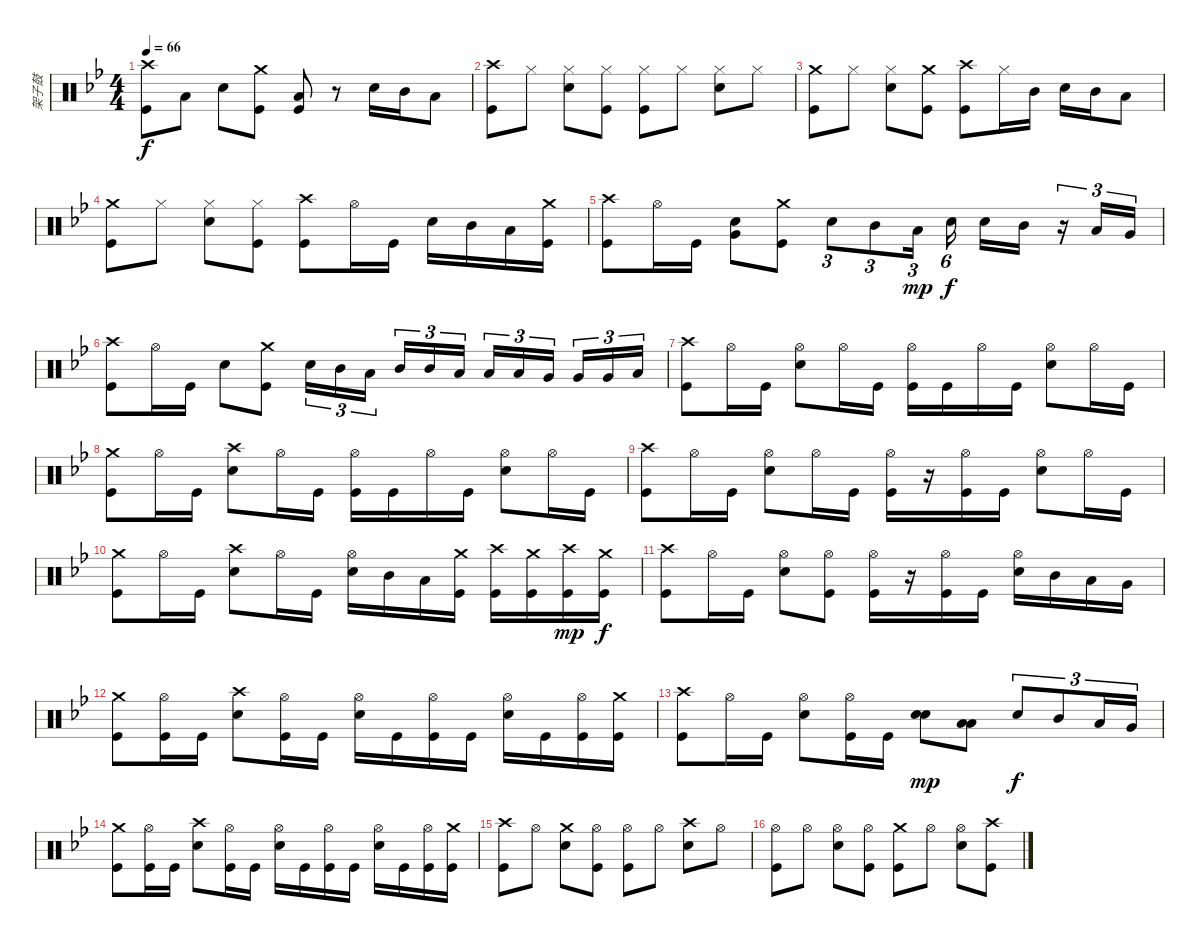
\track ("架子鼓" "架子鼓") {instrument percussion}
\staff {score}
\articulation defaults
\ts (4 4)
\tempo 66
\clef neutral
\ks bb
("Crash high (hit)" "Kick (hit)").8{dy f} "Low Tom (hit)".8 "Electric Snare (hit)".8 ("Crash medium (hit)" "Kick (hit)").8 ("Low Tom (hit)" "Kick (hit)").8 r.8 "Electric Snare (hit)".16 "Mid Tom (hit)".16 "Low Tom (hit)".8 |
("Crash high (hit)" "Kick (hit)").8 "Hi-Hat (closed)".8 ("Hi-Hat (closed)" "Electric Snare (hit)").8 ("Hi-Hat (closed)" "Kick (hit)").8 ("Hi-Hat (closed)" "Kick (hit)").8 "Hi-Hat (closed)".8 ("Hi-Hat (closed)" "Electric Snare (hit)").8 "Hi-Hat (closed)".8 |
("Crash medium (hit)" "Kick (hit)").8 "Hi-Hat (closed)".8 ("Hi-Hat (closed)" "Electric Snare (hit)").8 ("Crash medium (hit)" "Kick (hit)").8 ("Crash high (hit)" "Kick (hit)").8 "Hi-Hat (closed)".16 "Mid Tom (hit)".16 "Electric Snare (hit)".16 "Mid Tom (hit)".16 "Low Tom (hit)".8 |
("Crash medium (hit)" "Kick (hit)").8 "Hi-Hat (closed)".8 ("Hi-Hat (closed)" "Electric Snare (hit)").8 ("Hi-Hat (closed)" "Kick (hit)").8 ("Crash high (hit)" "Kick (hit)").8 "Hi-Hat (open)".16 "Kick (hit)".16 "Electric Snare (hit)".16 "Mid Tom (hit)".16 "Low Tom (hit)".16 ("Crash medium (hit)" "Kick (hit)").16 |
("Crash high (hit)" "Kick (hit)").8 "Hi-Hat (open)".16 "Kick (hit)".16 ("Electric Snare (hit)" "Very Low Tom (hit)").8 ("Crash medium (hit)" "Kick (hit)").8 "Electric Snare (hit)".8{tu (3 2)} "Mid Tom (hit)".8{tu (3 2)} "Low Tom (hit)".16{tu (3 2) dy mp} "Electric Snare (hit)".16{tu (6 4) dy f} "Electric Snare (hit)".16 "Mid Tom (hit)".16 r.16{tu (3 2)} "Low Tom (hit)".16{tu (3 2)} "Very Low Tom (hit)".16{tu (3 2)} |
("Crash high (hit)" "Kick (hit)").8 "Hi-Hat (open)".16 "Kick (hit)".16 "Electric Snare (hit)".8 ("Crash medium (hit)" "Kick (hit)").8 "Electric Snare (hit)".16{tu (3 2)} "Mid Tom (hit)".16{tu (3 2)} "Low Tom (hit)".16{tu (3 2) beam splitsecondary} "Mid Tom (hit)".16{tu (3 2)} "Mid Tom (hit)".16{tu (3 2)} "Low Tom (hit)".16{tu (3 2)} "Low Tom (hit)".16{tu (3 2)} "Low Tom (hit)".16{tu (3 2)} "Very Low Tom (hit)".16{tu (3 2) beam splitsecondary} "Very Low Tom (hit)".16{tu (3 2)} "Very Low Tom (hit)".16{tu (3 2)} "Low Floor Tom (hit)".16{tu (3 2)} |
("Crash high (hit)" "Kick (hit)").8 "Hi-Hat (open)".16 "Kick (hit)".16 ("Hi-Hat (open)" "Electric Snare (hit)").8 "Hi-Hat (open)".16 "Kick (hit)".16 ("Hi-Hat (open)" "Kick (hit)").16 "Kick (hit)".16 "Hi-Hat (open)".16 "Kick (hit)".16 ("Hi-Hat (open)" "Electric Snare (hit)").8 "Hi-Hat (open)".16 "Kick (hit)".16 |
("Crash medium (hit)" "Kick (hit)").8 "Hi-Hat (open)".16 "Kick (hit)".16 ("Crash high (hit)" "Electric Snare (hit)").8 "Hi-Hat (open)".16 "Kick (hit)".16 ("Hi-Hat (open)" "Kick (hit)").16 "Kick (hit)".16 "Hi-Hat (open)".16 "Kick (hit)".16 ("Hi-Hat (open)" "Electric Snare (hit)").8 "Hi-Hat (open)".16 "Kick (hit)".16 |
("Crash high (hit)" "Kick (hit)").8 "Hi-Hat (open)".16 "Kick (hit)".16 ("Hi-Hat (open)" "Electric Snare (hit)").8 "Hi-Hat (open)".16 "Kick (hit)".16 ("Hi-Hat (open)" "Kick (hit)").16 r.16 ("Hi-Hat (open)" "Kick (hit)").16 "Kick (hit)".16 ("Hi-Hat (open)" "Electric Snare (hit)").8 "Hi-Hat (open)".16 "Kick (hit)".16 |
("Crash medium (hit)" "Kick (hit)").8 "Hi-Hat (open)".16 "Kick (hit)".16 ("Crash high (hit)" "Electric Snare (hit)").8 "Hi-Hat (open)".16 "Kick (hit)".16 ("Hi-Hat (open)" "Electric Snare (hit)").16 "Mid Tom (hit)".16 "Low Tom (hit)".16 ("Crash medium (hit)" "Kick (hit)").16 ("Crash high (hit)" "Kick (hit)").16 ("Crash medium (hit)" "Kick (hit)").16 ("Crash high (hit)" "Kick (hit)").16{dy mp} ("Crash medium (hit)" "Kick (hit)").16{dy f} |
("Crash high (hit)" "Kick (hit)").8 "Hi-Hat (open)".16 "Kick (hit)".16 ("Hi-Hat (open)" "Electric Snare (hit)").8 ("Hi-Hat (open)" "Kick (hit)").8 ("Hi-Hat (open)" "Kick (hit)").16 r.16 ("Hi-Hat (open)" "Kick (hit)").16 "Kick (hit)".16 ("Hi-Hat (open)" "Electric Snare (hit)").16 "Mid Tom (hit)".16 "Low Tom (hit)".16 "Very Low Tom (hit)".16 |
("Crash medium (hit)" "Kick (hit)").8 ("Hi-Hat (open)" "Kick (hit)").16 "Kick (hit)".16 ("Crash high (hit)" "Electric Snare (hit)").8 ("Hi-Hat (open)" "Kick (hit)").16 "Kick (hit)".16 ("Hi-Hat (open)" "Electric Snare (hit)").16 "Kick (hit)".16 ("Hi-Hat (open)" "Kick (hit)").16 "Kick (hit)".16 ("Hi-Hat (open)" "Electric Snare (hit)").16 "Kick (hit)".16 ("Hi-Hat (open)" "Kick (hit)").16 ("Crash medium (hit)" "Kick (hit)").16 |
("Crash high (hit)" "Kick (hit)").8 "Hi-Hat (open)".16 "Kick (hit)".16 ("Hi-Hat (open)" "Electric Snare (hit)").8 ("Hi-Hat (open)" "Kick (hit)").16 "Kick (hit)".16 ("Electric Snare (hit)" "Electric Snare (hit)").8{bd 120 dy mp} ("Low Tom (hit)" "Low Tom (hit)").8{bd 120} "Electric Snare (hit)".8{tu (3 2) dy f} "Mid Tom (hit)".8{tu (3 2)} "Low Tom (hit)".16{tu (3 2)} "Very Low Tom (hit)".16{tu (3 2)} |
("Crash medium (hit)" "Kick (hit)").8 ("Hi-Hat (open)" "Kick (hit)").16 "Kick (hit)".16 ("Crash high (hit)" "Electric Snare (hit)").8 ("Hi-Hat (open)" "Kick (hit)").16 "Kick (hit)".16 ("Hi-Hat (open)" "Electric Snare (hit)").16 "Kick (hit)".16 ("Hi-Hat (open)" "Kick (hit)").16 "Kick (hit)".16 ("Hi-Hat (open)" "Electric Snare (hit)").16 "Kick (hit)".16 ("Hi-Hat (open)" "Kick (hit)").16 ("Crash medium (hit)" "Kick (hit)").16 |
("Crash high (hit)" "Kick (hit)").8 "Hi-Hat (open)".8 ("Crash medium (hit)" "Electric Snare (hit)").8 ("Hi-Hat (open)" "Kick (hit)").8 ("Hi-Hat (open)" "Kick (hit)").8 "Hi-Hat (open)".8 ("Crash high (hit)" "Electric Snare (hit)").8 "Hi-Hat (open)".8 |
("Hi-Hat (open)" "Kick (hit)").8 "Hi-Hat (open)".8 ("Hi-Hat (open)" "Electric Snare (hit)").8 ("Hi-Hat (open)" "Kick (hit)").8 ("Crash medium (hit)" "Kick (hit)").8 "Hi-Hat (open)".8 ("Hi-Hat (open)" "Electric Snare (hit)").8 ("Crash high (hit)" "Kick (hit)").8
